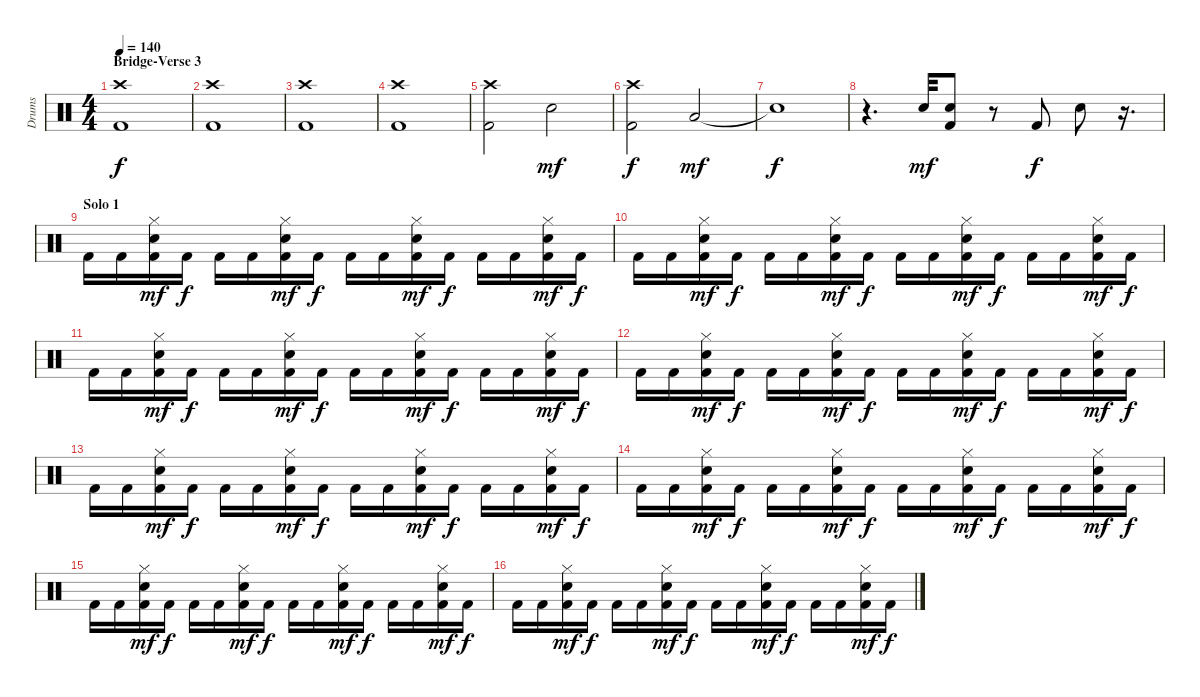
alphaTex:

\track ("Drums" "Drums") {instrument percussion}
\staff {score}
\articulation defaults
\ts (4 4)
\section ("" "Bridge-Verse 3")
\tempo 140
\clef neutral
\ks c
("Kick (hit) 2" "Crash high (hit)").1{dy f} |
("Kick (hit) 2" "Crash high (hit)").1 |
("Kick (hit) 2" "Crash high (hit)").1 |
("Kick (hit) 2" "Crash high (hit)").1 |
("Kick (hit) 2" "Crash high (hit)").2 "Snare (hit) 2".2{dy mf} |
("Kick (hit) 2" "Crash high (hit)").2{dy f} "Low Floor Tom (hit)".2{dy mf} |
"Snare (hit)"{t}.1{dy f} |
r.4{d} "Snare (hit) 2".32{dy mf} ("Kick (hit) 2" "Snare (hit) 2").8 r.8 "Kick (hit) 2".8{dy f} "Snare (hit) 2".8 r.16{d} |
\section ("" "Solo 1")
"Kick (hit) 2".16 "Kick (hit) 2".16 ("Kick (hit) 2" "Snare (hit) 2" "Hi-Hat (closed)").16{dy mf} "Kick (hit) 2".16{dy f} "Kick (hit) 2".16 "Kick (hit) 2".16 ("Kick (hit) 2" "Snare (hit) 2" "Hi-Hat (closed)").16{dy mf} "Kick (hit) 2".16{dy f} "Kick (hit) 2".16 "Kick (hit) 2".16 ("Kick (hit) 2" "Snare (hit) 2" "Hi-Hat (closed)").16{dy mf} "Kick (hit) 2".16{dy f} "Kick (hit) 2".16 "Kick (hit) 2".16 ("Kick (hit) 2" "Snare (hit) 2" "Hi-Hat (closed)").16{dy mf} "Kick (hit) 2".16{dy f} |
"Kick (hit) 2".16 "Kick (hit) 2".16 ("Kick (hit) 2" "Snare (hit) 2" "Hi-Hat (closed)").16{dy mf} "Kick (hit) 2".16{dy f} "Kick (hit) 2".16 "Kick (hit) 2".16 ("Kick (hit) 2" "Snare (hit) 2" "Hi-Hat (closed)").16{dy mf} "Kick (hit) 2".16{dy f} "Kick (hit) 2".16 "Kick (hit) 2".16 ("Kick (hit) 2" "Snare (hit) 2" "Hi-Hat (closed)").16{dy mf} "Kick (hit) 2".16{dy f} "Kick (hit) 2".16 "Kick (hit) 2".16 ("Kick (hit) 2" "Snare (hit) 2" "Hi-Hat (closed)").16{dy mf} "Kick (hit) 2".16{dy f} |
"Kick (hit) 2".16 "Kick (hit) 2".16 ("Kick (hit) 2" "Snare (hit) 2" "Hi-Hat (closed)").16{dy mf} "Kick (hit) 2".16{dy f} "Kick (hit) 2".16 "Kick (hit) 2".16 ("Kick (hit) 2" "Snare (hit) 2" "Hi-Hat (closed)").16{dy mf} "Kick (hit) 2".16{dy f} "Kick (hit) 2".16 "Kick (hit) 2".16 ("Kick (hit) 2" "Snare (hit) 2" "Hi-Hat (closed)").16{dy mf} "Kick (hit) 2".16{dy f} "Kick (hit) 2".16 "Kick (hit) 2".16 ("Kick (hit) 2" "Snare (hit) 2" "Hi-Hat (closed)").16{dy mf} "Kick (hit) 2".16{dy f} |
"Kick (hit) 2".16 "Kick (hit) 2".16 ("Kick (hit) 2" "Snare (hit) 2" "Hi-Hat (closed)").16{dy mf} "Kick (hit) 2".16{dy f} "Kick (hit) 2".16 "Kick (hit) 2".16 ("Kick (hit) 2" "Snare (hit) 2" "Hi-Hat (closed)").16{dy mf} "Kick (hit) 2".16{dy f} "Kick (hit) 2".16 "Kick (hit) 2".16 ("Kick (hit) 2" "Snare (hit) 2" "Hi-Hat (closed)").16{dy mf} "Kick (hit) 2".16{dy f} "Kick (hit) 2".16 "Kick (hit) 2".16 ("Kick (hit) 2" "Snare (hit) 2" "Hi-Hat (closed)").16{dy mf} "Kick (hit) 2".16{dy f} |
"Kick (hit) 2".16 "Kick (hit) 2".16 ("Kick (hit) 2" "Snare (hit) 2" "Hi-Hat (closed)").16{dy mf} "Kick (hit) 2".16{dy f} "Kick (hit) 2".16 "Kick (hit) 2".16 ("Kick (hit) 2" "Snare (hit) 2" "Hi-Hat (closed)").16{dy mf} "Kick (hit) 2".16{dy f} "Kick (hit) 2".16 "Kick (hit) 2".16 ("Kick (hit) 2" "Snare (hit) 2" "Hi-Hat (closed)").16{dy mf} "Kick (hit) 2".16{dy f} "Kick (hit) 2".16 "Kick (hit) 2".16 ("Kick (hit) 2" "Snare (hit) 2" "Hi-Hat (closed)").16{dy mf} "Kick (hit) 2".16{dy f} |
"Kick (hit) 2".16 "Kick (hit) 2".16 ("Kick (hit) 2" "Snare (hit) 2" "Hi-Hat (closed)").16{dy mf} "Kick (hit) 2".16{dy f} "Kick (hit) 2".16 "Kick (hit) 2".16 ("Kick (hit) 2" "Snare (hit) 2" "Hi-Hat (closed)").16{dy mf} "Kick (hit) 2".16{dy f} "Kick (hit) 2".16 "Kick (hit) 2".16 ("Kick (hit) 2" "Snare (hit) 2" "Hi-Hat (closed)").16{dy mf} "Kick (hit) 2".16{dy f} "Kick (hit) 2".16 "Kick (hit) 2".16 ("Kick (hit) 2" "Snare (hit) 2" "Hi-Hat (closed)").16{dy mf} "Kick (hit) 2".16{dy f} |
"Kick (hit) 2".16 "Kick (hit) 2".16 ("Kick (hit) 2" "Snare (hit) 2" "Hi-Hat (closed)").16{dy mf} "Kick (hit) 2".16{dy f} "Kick (hit) 2".16 "Kick (hit) 2".16 ("Kick (hit) 2" "Snare (hit) 2" "Hi-Hat (closed)").16{dy mf} "Kick (hit) 2".16{dy f} "Kick (hit) 2".16 "Kick (hit) 2".16 ("Kick (hit) 2" "Snare (hit) 2" "Hi-Hat (closed)").16{dy mf} "Kick (hit) 2".16{dy f} "Kick (hit) 2".16 "Kick (hit) 2".16 ("Kick (hit) 2" "Snare (hit) 2" "Hi-Hat (closed)").16{dy mf} "Kick (hit) 2".16{dy f} |
"Kick (hit) 2".16 "Kick (hit) 2".16 ("Kick (hit) 2" "Snare (hit) 2" "Hi-Hat (closed)").16{dy mf} "Kick (hit) 2".16{dy f} "Kick (hit) 2".16 "Kick (hit) 2".16 ("Kick (hit) 2" "Snare (hit) 2" "Hi-Hat (closed)").16{dy mf} "Kick (hit) 2".16{dy f} "Kick (hit) 2".16 "Kick (hit) 2".16 ("Kick (hit) 2" "Snare (hit) 2" "Hi-Hat (closed)").16{dy mf} "Kick (hit) 2".16{dy f} "Kick (hit) 2".16 "Kick (hit) 2".16 ("Kick (hit) 2" "Snare (hit) 2" "Hi-Hat (closed)").16{dy mf} "Kick (hit) 2".16{dy f}
